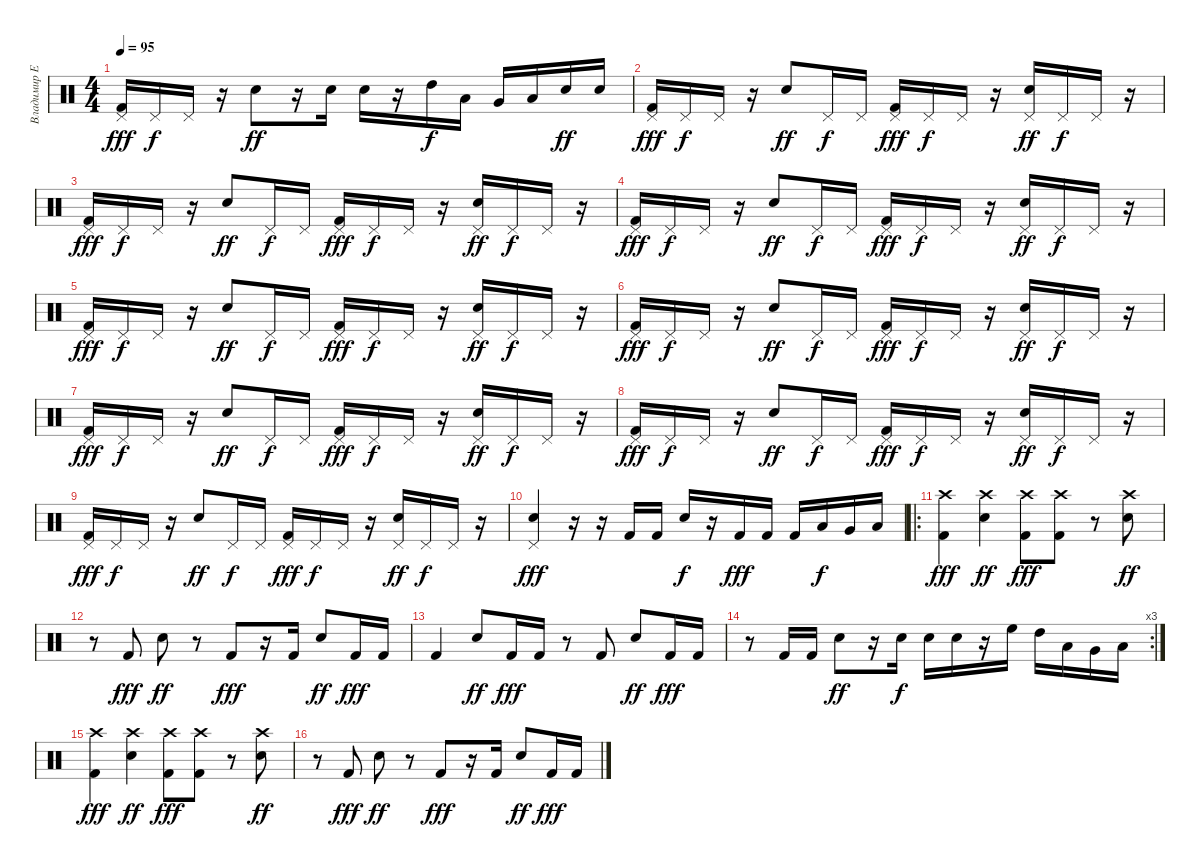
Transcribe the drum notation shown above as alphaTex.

\track ("Владимир Ермаков" "Владимир Е") {instrument percussion}
\staff {score}
\articulation defaults
\ts (4 4)
\tempo 95
\clef neutral
\ks c
("Kick (hit) 2" "Pedal Hi-Hat (hit)").16{dy fff} "Pedal Hi-Hat (hit)".16{dy f} "Pedal Hi-Hat (hit)".16 r.16 "Electric Snare (hit)".8{dy ff} r.16 "Electric Snare (hit)".16 "Electric Snare (hit)".16 r.16 "High Tom (hit)".16{dy f} "Low Tom (hit)".16 "Very Low Tom (hit)".16 "Low Floor Tom (hit)".16 "Electric Snare (hit)".16{dy ff} "Electric Snare (hit)".16 |
("Kick (hit) 2" "Pedal Hi-Hat (hit)").16{dy fff} "Pedal Hi-Hat (hit)".16{dy f} "Pedal Hi-Hat (hit)".16 r.16 "Electric Snare (hit)".8{dy ff} "Pedal Hi-Hat (hit)".16{dy f} "Pedal Hi-Hat (hit)".16 ("Kick (hit) 2" "Pedal Hi-Hat (hit)").16{dy fff} "Pedal Hi-Hat (hit)".16{dy f} "Pedal Hi-Hat (hit)".16 r.16 ("Electric Snare (hit)" "Pedal Hi-Hat (hit)").16{dy ff} "Pedal Hi-Hat (hit)".16{dy f} "Pedal Hi-Hat (hit)".16 r.16 |
("Kick (hit) 2" "Pedal Hi-Hat (hit)").16{dy fff} "Pedal Hi-Hat (hit)".16{dy f} "Pedal Hi-Hat (hit)".16 r.16 "Electric Snare (hit)".8{dy ff} "Pedal Hi-Hat (hit)".16{dy f} "Pedal Hi-Hat (hit)".16 ("Kick (hit) 2" "Pedal Hi-Hat (hit)").16{dy fff} "Pedal Hi-Hat (hit)".16{dy f} "Pedal Hi-Hat (hit)".16 r.16 ("Electric Snare (hit)" "Pedal Hi-Hat (hit)").16{dy ff} "Pedal Hi-Hat (hit)".16{dy f} "Pedal Hi-Hat (hit)".16 r.16 |
("Kick (hit) 2" "Pedal Hi-Hat (hit)").16{dy fff} "Pedal Hi-Hat (hit)".16{dy f} "Pedal Hi-Hat (hit)".16 r.16 "Electric Snare (hit)".8{dy ff} "Pedal Hi-Hat (hit)".16{dy f} "Pedal Hi-Hat (hit)".16 ("Kick (hit) 2" "Pedal Hi-Hat (hit)").16{dy fff} "Pedal Hi-Hat (hit)".16{dy f} "Pedal Hi-Hat (hit)".16 r.16 ("Electric Snare (hit)" "Pedal Hi-Hat (hit)").16{dy ff} "Pedal Hi-Hat (hit)".16{dy f} "Pedal Hi-Hat (hit)".16 r.16 |
("Kick (hit) 2" "Pedal Hi-Hat (hit)").16{dy fff} "Pedal Hi-Hat (hit)".16{dy f} "Pedal Hi-Hat (hit)".16 r.16 "Electric Snare (hit)".8{dy ff} "Pedal Hi-Hat (hit)".16{dy f} "Pedal Hi-Hat (hit)".16 ("Kick (hit) 2" "Pedal Hi-Hat (hit)").16{dy fff} "Pedal Hi-Hat (hit)".16{dy f} "Pedal Hi-Hat (hit)".16 r.16 ("Electric Snare (hit)" "Pedal Hi-Hat (hit)").16{dy ff} "Pedal Hi-Hat (hit)".16{dy f} "Pedal Hi-Hat (hit)".16 r.16 |
("Kick (hit) 2" "Pedal Hi-Hat (hit)").16{dy fff} "Pedal Hi-Hat (hit)".16{dy f} "Pedal Hi-Hat (hit)".16 r.16 "Electric Snare (hit)".8{dy ff} "Pedal Hi-Hat (hit)".16{dy f} "Pedal Hi-Hat (hit)".16 ("Kick (hit) 2" "Pedal Hi-Hat (hit)").16{dy fff} "Pedal Hi-Hat (hit)".16{dy f} "Pedal Hi-Hat (hit)".16 r.16 ("Electric Snare (hit)" "Pedal Hi-Hat (hit)").16{dy ff} "Pedal Hi-Hat (hit)".16{dy f} "Pedal Hi-Hat (hit)".16 r.16 |
("Kick (hit) 2" "Pedal Hi-Hat (hit)").16{dy fff} "Pedal Hi-Hat (hit)".16{dy f} "Pedal Hi-Hat (hit)".16 r.16 "Electric Snare (hit)".8{dy ff} "Pedal Hi-Hat (hit)".16{dy f} "Pedal Hi-Hat (hit)".16 ("Kick (hit) 2" "Pedal Hi-Hat (hit)").16{dy fff} "Pedal Hi-Hat (hit)".16{dy f} "Pedal Hi-Hat (hit)".16 r.16 ("Electric Snare (hit)" "Pedal Hi-Hat (hit)").16{dy ff} "Pedal Hi-Hat (hit)".16{dy f} "Pedal Hi-Hat (hit)".16 r.16 |
("Kick (hit) 2" "Pedal Hi-Hat (hit)").16{dy fff} "Pedal Hi-Hat (hit)".16{dy f} "Pedal Hi-Hat (hit)".16 r.16 "Electric Snare (hit)".8{dy ff} "Pedal Hi-Hat (hit)".16{dy f} "Pedal Hi-Hat (hit)".16 ("Kick (hit) 2" "Pedal Hi-Hat (hit)").16{dy fff} "Pedal Hi-Hat (hit)".16{dy f} "Pedal Hi-Hat (hit)".16 r.16 ("Electric Snare (hit)" "Pedal Hi-Hat (hit)").16{dy ff} "Pedal Hi-Hat (hit)".16{dy f} "Pedal Hi-Hat (hit)".16 r.16 |
("Kick (hit) 2" "Pedal Hi-Hat (hit)").16{dy fff} "Pedal Hi-Hat (hit)".16{dy f} "Pedal Hi-Hat (hit)".16 r.16 "Electric Snare (hit)".8{dy ff} "Pedal Hi-Hat (hit)".16{dy f} "Pedal Hi-Hat (hit)".16 ("Kick (hit) 2" "Pedal Hi-Hat (hit)").16{dy fff} "Pedal Hi-Hat (hit)".16{dy f} "Pedal Hi-Hat (hit)".16 r.16 ("Electric Snare (hit)" "Pedal Hi-Hat (hit)").16{dy ff} "Pedal Hi-Hat (hit)".16{dy f} "Pedal Hi-Hat (hit)".16 r.16 |
("Electric Snare (hit)" "Pedal Hi-Hat (hit)").4{dy fff} r.16 r.16 "Kick (hit) 2".16 "Kick (hit) 2".16 "Electric Snare (hit)".16{dy f} r.16 "Kick (hit) 2".16{dy fff} "Kick (hit) 2".16 "Kick (hit) 2".16 "Low Tom (hit)".16{dy f} "Very Low Tom (hit)".16 "Low Floor Tom (hit)".16 |
\ro
("Kick (hit) 2" "Crash high (hit)").4{dy fff} ("Electric Snare (hit)" "Crash high (hit)").4{dy ff} ("Kick (hit) 2" "Crash high (hit)").8{dy fff} ("Kick (hit) 2" "Crash high (hit)").8 r.8 ("Electric Snare (hit)" "Crash high (hit)").8{dy ff} |
r.8 "Kick (hit) 2".8{dy fff} "Electric Snare (hit)".8{dy ff} r.8 "Kick (hit) 2".8{dy fff} r.16 "Kick (hit) 2".16 "Electric Snare (hit)".8{dy ff} "Kick (hit) 2".16{dy fff} "Kick (hit) 2".16 |
"Kick (hit) 2".4 "Electric Snare (hit)".8{dy ff} "Kick (hit) 2".16{dy fff} "Kick (hit) 2".16 r.8 "Kick (hit) 2".8 "Electric Snare (hit)".8{dy ff} "Kick (hit) 2".16{dy fff} "Kick (hit) 2".16 |
\rc 3
r.8 "Kick (hit) 2".16 "Kick (hit) 2".16 "Electric Snare (hit)".8{dy ff} r.16 "Electric Snare (hit)".16{dy f} "Electric Snare (hit)".16 "Electric Snare (hit)".16 r.16 "High Floor Tom (hit)".16 "High Tom (hit)".16 "Low Tom (hit)".16 "Very Low Tom (hit)".16 "Low Floor Tom (hit)".16 |
("Kick (hit) 2" "Crash high (hit)").4{dy fff} ("Electric Snare (hit)" "Crash high (hit)").4{dy ff} ("Kick (hit) 2" "Crash high (hit)").8{dy fff} ("Kick (hit) 2" "Crash high (hit)").8 r.8 ("Electric Snare (hit)" "Crash high (hit)").8{dy ff} |
r.8 "Kick (hit) 2".8{dy fff} "Electric Snare (hit)".8{dy ff} r.8 "Kick (hit) 2".8{dy fff} r.16 "Kick (hit) 2".16 "Electric Snare (hit)".8{dy ff} "Kick (hit) 2".16{dy fff} "Kick (hit) 2".16
